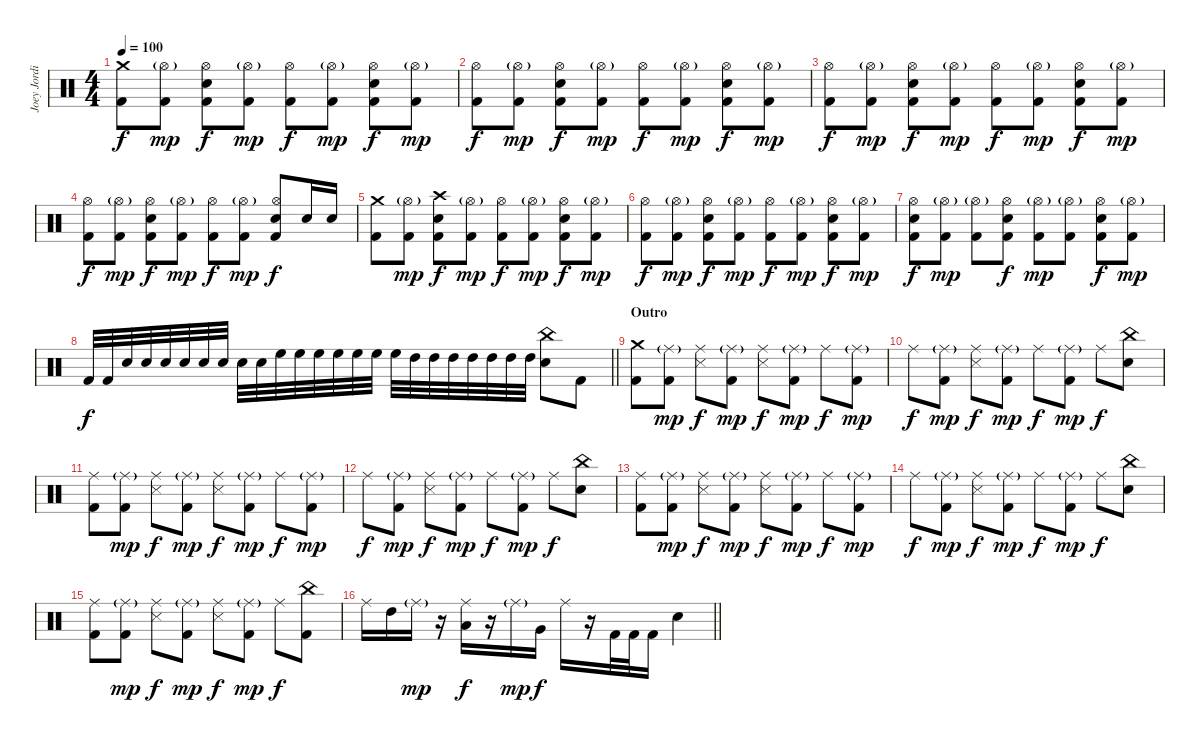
\track ("Joey Jordison" "Joey Jordi") {instrument percussion}
\staff {score}
\articulation defaults
\ts (4 4)
\tempo 100
\clef neutral
\ks c
("Crash medium (hit)" "Kick (hit) 2").8{dy f} ("Hi-Hat (open)"{g} "Kick (hit) 2").8{dy mp} ("Hi-Hat (open)" "Electric Snare (hit)" "Kick (hit) 2").8{dy f} ("Hi-Hat (open)"{g} "Kick (hit) 2").8{dy mp} ("Hi-Hat (open)" "Kick (hit) 2").8{dy f} ("Hi-Hat (open)"{g} "Kick (hit) 2").8{dy mp} ("Hi-Hat (open)" "Electric Snare (hit)" "Kick (hit) 2").8{dy f} ("Hi-Hat (open)"{g} "Kick (hit) 2").8{dy mp} |
("Hi-Hat (open)" "Kick (hit) 2").8{dy f} ("Hi-Hat (open)"{g} "Kick (hit) 2").8{dy mp} ("Hi-Hat (open)" "Electric Snare (hit)" "Kick (hit) 2").8{dy f} ("Hi-Hat (open)"{g} "Kick (hit) 2").8{dy mp} ("Hi-Hat (open)" "Kick (hit) 2").8{dy f} ("Hi-Hat (open)"{g} "Kick (hit) 2").8{dy mp} ("Hi-Hat (open)" "Electric Snare (hit)" "Kick (hit) 2").8{dy f} ("Hi-Hat (open)"{g} "Kick (hit) 2").8{dy mp} |
("Hi-Hat (open)" "Kick (hit) 2").8{dy f} ("Hi-Hat (open)"{g} "Kick (hit) 2").8{dy mp} ("Hi-Hat (open)" "Electric Snare (hit)" "Kick (hit) 2").8{dy f} ("Hi-Hat (open)"{g} "Kick (hit) 2").8{dy mp} ("Hi-Hat (open)" "Kick (hit) 2").8{dy f} ("Hi-Hat (open)"{g} "Kick (hit) 2").8{dy mp} ("Hi-Hat (open)" "Electric Snare (hit)" "Kick (hit) 2").8{dy f} ("Hi-Hat (open)"{g} "Kick (hit) 2").8{dy mp} |
("Hi-Hat (open)" "Kick (hit) 2").8{dy f} ("Hi-Hat (open)"{g} "Kick (hit) 2").8{dy mp} ("Hi-Hat (open)" "Electric Snare (hit)" "Kick (hit) 2").8{dy f} ("Hi-Hat (open)"{g} "Kick (hit) 2").8{dy mp} ("Hi-Hat (open)" "Kick (hit) 2").8{dy f} ("Hi-Hat (open)"{g} "Kick (hit) 2").8{dy mp} ("Hi-Hat (open)" "Electric Snare (hit)" "Kick (hit) 2").8{dy f} "Electric Snare (hit)".16 "Electric Snare (hit)".16 |
("Crash medium (hit)" "Kick (hit) 2").8 ("Hi-Hat (open)"{g} "Kick (hit) 2").8{dy mp} ("Crash high (hit)" "Electric Snare (hit)" "Kick (hit) 2").8{dy f} ("Hi-Hat (open)"{g} "Kick (hit) 2").8{dy mp} ("Hi-Hat (open)" "Kick (hit) 2").8{dy f} ("Hi-Hat (open)"{g} "Kick (hit) 2").8{dy mp} ("Hi-Hat (open)" "Electric Snare (hit)" "Kick (hit) 2").8{dy f} ("Hi-Hat (open)"{g} "Kick (hit) 2").8{dy mp} |
("Hi-Hat (open)" "Kick (hit) 2").8{dy f} ("Hi-Hat (open)"{g} "Kick (hit) 2").8{dy mp} ("Hi-Hat (open)" "Electric Snare (hit)" "Kick (hit) 2").8{dy f} ("Hi-Hat (open)"{g} "Kick (hit) 2").8{dy mp} ("Hi-Hat (open)" "Kick (hit) 2").8{dy f} ("Hi-Hat (open)"{g} "Kick (hit) 2").8{dy mp} ("Hi-Hat (open)" "Electric Snare (hit)" "Kick (hit) 2").8{dy f} ("Hi-Hat (open)"{g} "Kick (hit) 2").8{dy mp} |
("Hi-Hat (open)" "Electric Snare (hit)" "Kick (hit) 2").8{dy f} ("Hi-Hat (open)"{g} "Kick (hit) 2").8{dy mp} ("Hi-Hat (open)"{g} "Kick (hit) 2").8 ("Hi-Hat (open)" "Electric Snare (hit)" "Kick (hit) 2").8{dy f} ("Hi-Hat (open)"{g} "Kick (hit) 2").8{dy mp} ("Hi-Hat (open)"{g} "Kick (hit) 2").8 ("Hi-Hat (open)" "Electric Snare (hit)" "Kick (hit) 2").8{dy f} ("Hi-Hat (open)"{g} "Kick (hit) 2").8{dy mp} |
\barLineRight lightlight "Kick (hit) 2".32{dy f} "Kick (hit) 2".32 "Electric Snare (hit)".32 "Electric Snare (hit)".32 "Electric Snare (hit)".32 "Electric Snare (hit)".32 "Electric Snare (hit)".32 "Electric Snare (hit)".32 "Electric Snare (hit)".32 "Electric Snare (hit)".32 "High Floor Tom (hit)".32 "High Floor Tom (hit)".32 "High Floor Tom (hit)".32 "High Floor Tom (hit)".32 "High Floor Tom (hit)".32 "High Floor Tom (hit)".32 "High Floor Tom (hit)".32 "High Tom (hit)".32 "High Tom (hit)".32 "High Tom (hit)".32 "High Tom (hit)".32 "High Tom (hit)".32 "High Tom (hit)".32 "High Tom (hit)".32
("China (hit)" "Electric Snare (hit)").8 "Kick (hit) 2".8 |
\section ("" "Outro")
("Crash medium (hit)" "Kick (hit) 2").8 ("Ride (middle)"{g} "Kick (hit) 2").8{dy mp} ("Ride (middle)" "Snare (side stick) 3").8{dy f} ("Ride (middle)"{g} "Kick (hit) 2").8{dy mp} ("Ride (middle)" "Snare (side stick) 3").8{dy f} ("Ride (middle)"{g} "Kick (hit) 2").8{dy mp} "Ride (middle)".8{dy f} ("Ride (middle)"{g} "Kick (hit) 2").8{dy mp} |
"Ride (middle)".8{dy f} ("Ride (middle)"{g} "Kick (hit) 2").8{dy mp} ("Ride (middle)" "Snare (side stick) 3").8{dy f} ("Ride (middle)"{g} "Kick (hit) 2").8{dy mp} "Ride (middle)".8{dy f} ("Ride (middle)"{g} "Kick (hit) 2").8{dy mp} "Ride (middle)".8{dy f} ("China (hit)" "Electric Snare (hit)").8 |
("Ride (middle)" "Kick (hit) 2").8 ("Ride (middle)"{g} "Kick (hit) 2").8{dy mp} ("Ride (middle)" "Snare (side stick) 3").8{dy f} ("Ride (middle)"{g} "Kick (hit) 2").8{dy mp} ("Ride (middle)" "Snare (side stick) 3").8{dy f} ("Ride (middle)"{g} "Kick (hit) 2").8{dy mp} "Ride (middle)".8{dy f} ("Ride (middle)"{g} "Kick (hit) 2").8{dy mp} |
"Ride (middle)".8{dy f} ("Ride (middle)"{g} "Kick (hit) 2").8{dy mp} ("Ride (middle)" "Snare (side stick) 3").8{dy f} ("Ride (middle)"{g} "Kick (hit) 2").8{dy mp} "Ride (middle)".8{dy f} ("Ride (middle)"{g} "Kick (hit) 2").8{dy mp} "Ride (middle)".8{dy f} ("China (hit)" "Electric Snare (hit)").8 |
("Ride (middle)" "Kick (hit) 2").8 ("Ride (middle)"{g} "Kick (hit) 2").8{dy mp} ("Ride (middle)" "Snare (side stick) 3").8{dy f} ("Ride (middle)"{g} "Kick (hit) 2").8{dy mp} ("Ride (middle)" "Snare (side stick) 3").8{dy f} ("Ride (middle)"{g} "Kick (hit) 2").8{dy mp} "Ride (middle)".8{dy f} ("Ride (middle)"{g} "Kick (hit) 2").8{dy mp} |
"Ride (middle)".8{dy f} ("Ride (middle)"{g} "Kick (hit) 2").8{dy mp} ("Ride (middle)" "Snare (side stick) 3").8{dy f} ("Ride (middle)"{g} "Kick (hit) 2").8{dy mp} "Ride (middle)".8{dy f} ("Ride (middle)"{g} "Kick (hit) 2").8{dy mp} "Ride (middle)".8{dy f} ("China (hit)" "Electric Snare (hit)").8 |
("Ride (middle)" "Kick (hit) 2").8 ("Ride (middle)"{g} "Kick (hit) 2").8{dy mp} ("Ride (middle)" "Snare (side stick) 3").8{dy f} ("Ride (middle)"{g} "Kick (hit) 2").8{dy mp} ("Ride (middle)" "Snare (side stick) 3").8{dy f} ("Ride (middle)"{g} "Kick (hit) 2").8{dy mp} "Ride (middle)".8{dy f} ("China (hit)" "Kick (hit) 2").8 |
\barLineRight lightlight "Ride (middle)".16 "High Tom (hit)".16 "Ride (middle)"{g}.16{dy mp}
r.16 ("Ride (middle)" "Low Tom (hit)").16{dy f} r.16 "Ride (middle)"{g}.16{dy mp} "Very Low Tom (hit)".16{dy f} "Ride (middle)".16 r.16 "Kick (hit) 2".32 "Kick (hit) 2".32 "Kick (hit) 2".16 "Electric Snare (hit)".4
